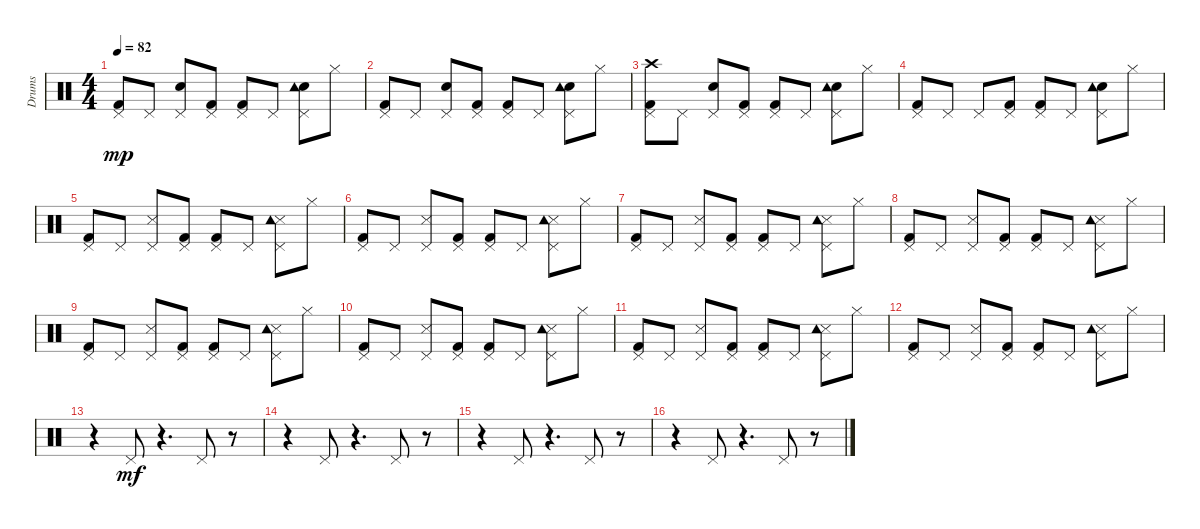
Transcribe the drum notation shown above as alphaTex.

\track ("Drums" "Drums") {instrument percussion}
\staff {score}
\articulation defaults
\ts (4 4)
\tempo 82
\clef neutral
\ks c
("Kick (hit) 2" "Pedal Hi-Hat (hit)").8{dy mp} "Pedal Hi-Hat (hit)".8 ("Snare (hit) 2" "Pedal Hi-Hat (hit)").8 ("Kick (hit) 2" "Pedal Hi-Hat (hit)").8 ("Kick (hit) 2" "Pedal Hi-Hat (hit)").8 "Pedal Hi-Hat (hit)".8 ("Snare (hit) 2" "Tambourine (hit)" "Pedal Hi-Hat (hit)").8 "Hi-Hat (closed)".8 |
("Kick (hit) 2" "Pedal Hi-Hat (hit)").8 "Pedal Hi-Hat (hit)".8 ("Snare (hit) 2" "Pedal Hi-Hat (hit)").8 ("Kick (hit) 2" "Pedal Hi-Hat (hit)").8 ("Kick (hit) 2" "Pedal Hi-Hat (hit)").8 "Pedal Hi-Hat (hit)".8 ("Snare (hit) 2" "Tambourine (hit)" "Pedal Hi-Hat (hit)").8 "Hi-Hat (closed)".8 |
("Kick (hit) 2" "Crash high (hit)" "Pedal Hi-Hat (hit)").8 "Pedal Hi-Hat (hit)".8 ("Snare (hit) 2" "Pedal Hi-Hat (hit)").8 ("Kick (hit) 2" "Pedal Hi-Hat (hit)").8 ("Kick (hit) 2" "Pedal Hi-Hat (hit)").8 "Pedal Hi-Hat (hit)".8 ("Snare (hit) 2" "Tambourine (hit)" "Pedal Hi-Hat (hit)").8 "Hi-Hat (closed)".8 |
("Kick (hit) 2" "Pedal Hi-Hat (hit)").8 "Pedal Hi-Hat (hit)".8 "Pedal Hi-Hat (hit)".8 ("Kick (hit) 2" "Pedal Hi-Hat (hit)").8 ("Kick (hit) 2" "Pedal Hi-Hat (hit)").8 "Pedal Hi-Hat (hit)".8 ("Snare (hit) 2" "Tambourine (hit)" "Pedal Hi-Hat (hit)").8 "Hi-Hat (closed)".8 |
("Kick (hit) 2" "Pedal Hi-Hat (hit)").8 "Pedal Hi-Hat (hit)".8 ("Snare (side stick) 3" "Pedal Hi-Hat (hit)").8 ("Kick (hit) 2" "Pedal Hi-Hat (hit)").8 ("Kick (hit) 2" "Pedal Hi-Hat (hit)").8 "Pedal Hi-Hat (hit)".8 ("Snare (side stick) 3" "Tambourine (hit)" "Pedal Hi-Hat (hit)").8 "Hi-Hat (closed)".8 |
("Kick (hit) 2" "Pedal Hi-Hat (hit)").8 "Pedal Hi-Hat (hit)".8 ("Snare (side stick) 3" "Pedal Hi-Hat (hit)").8 ("Kick (hit) 2" "Pedal Hi-Hat (hit)").8 ("Kick (hit) 2" "Pedal Hi-Hat (hit)").8 "Pedal Hi-Hat (hit)".8 ("Snare (side stick) 3" "Tambourine (hit)" "Pedal Hi-Hat (hit)").8 "Hi-Hat (closed)".8 |
("Kick (hit) 2" "Pedal Hi-Hat (hit)").8 "Pedal Hi-Hat (hit)".8 ("Snare (side stick) 3" "Pedal Hi-Hat (hit)").8 ("Kick (hit) 2" "Pedal Hi-Hat (hit)").8 ("Kick (hit) 2" "Pedal Hi-Hat (hit)").8 "Pedal Hi-Hat (hit)".8 ("Snare (side stick) 3" "Tambourine (hit)" "Pedal Hi-Hat (hit)").8 "Hi-Hat (closed)".8 |
("Kick (hit) 2" "Pedal Hi-Hat (hit)").8 "Pedal Hi-Hat (hit)".8 ("Snare (side stick) 3" "Pedal Hi-Hat (hit)").8 ("Kick (hit) 2" "Pedal Hi-Hat (hit)").8 ("Kick (hit) 2" "Pedal Hi-Hat (hit)").8 "Pedal Hi-Hat (hit)".8 ("Snare (side stick) 3" "Tambourine (hit)" "Pedal Hi-Hat (hit)").8 "Hi-Hat (closed)".8 |
("Kick (hit) 2" "Pedal Hi-Hat (hit)").8 "Pedal Hi-Hat (hit)".8 ("Snare (side stick) 3" "Pedal Hi-Hat (hit)").8 ("Kick (hit) 2" "Pedal Hi-Hat (hit)").8 ("Kick (hit) 2" "Pedal Hi-Hat (hit)").8 "Pedal Hi-Hat (hit)".8 ("Snare (side stick) 3" "Tambourine (hit)" "Pedal Hi-Hat (hit)").8 "Hi-Hat (closed)".8 |
("Kick (hit) 2" "Pedal Hi-Hat (hit)").8 "Pedal Hi-Hat (hit)".8 ("Snare (side stick) 3" "Pedal Hi-Hat (hit)").8 ("Kick (hit) 2" "Pedal Hi-Hat (hit)").8 ("Kick (hit) 2" "Pedal Hi-Hat (hit)").8 "Pedal Hi-Hat (hit)".8 ("Snare (side stick) 3" "Tambourine (hit)" "Pedal Hi-Hat (hit)").8 "Hi-Hat (closed)".8 |
("Kick (hit) 2" "Pedal Hi-Hat (hit)").8 "Pedal Hi-Hat (hit)".8 ("Snare (side stick) 3" "Pedal Hi-Hat (hit)").8 ("Kick (hit) 2" "Pedal Hi-Hat (hit)").8 ("Kick (hit) 2" "Pedal Hi-Hat (hit)").8 "Pedal Hi-Hat (hit)".8 ("Snare (side stick) 3" "Tambourine (hit)" "Pedal Hi-Hat (hit)").8 "Hi-Hat (closed)".8 |
("Kick (hit) 2" "Pedal Hi-Hat (hit)").8 "Pedal Hi-Hat (hit)".8 ("Snare (side stick) 3" "Pedal Hi-Hat (hit)").8 ("Kick (hit) 2" "Pedal Hi-Hat (hit)").8 ("Kick (hit) 2" "Pedal Hi-Hat (hit)").8 "Pedal Hi-Hat (hit)".8 ("Snare (side stick) 3" "Tambourine (hit)" "Pedal Hi-Hat (hit)").8 "Hi-Hat (closed)".8 |
r.4 "Pedal Hi-Hat (hit)".8{dy mf} r.4{d} "Pedal Hi-Hat (hit)".8 r.8 |
r.4 "Pedal Hi-Hat (hit)".8 r.4{d} "Pedal Hi-Hat (hit)".8 r.8 |
r.4 "Pedal Hi-Hat (hit)".8 r.4{d} "Pedal Hi-Hat (hit)".8 r.8 |
r.4 "Pedal Hi-Hat (hit)".8 r.4{d} "Pedal Hi-Hat (hit)".8 r.8
